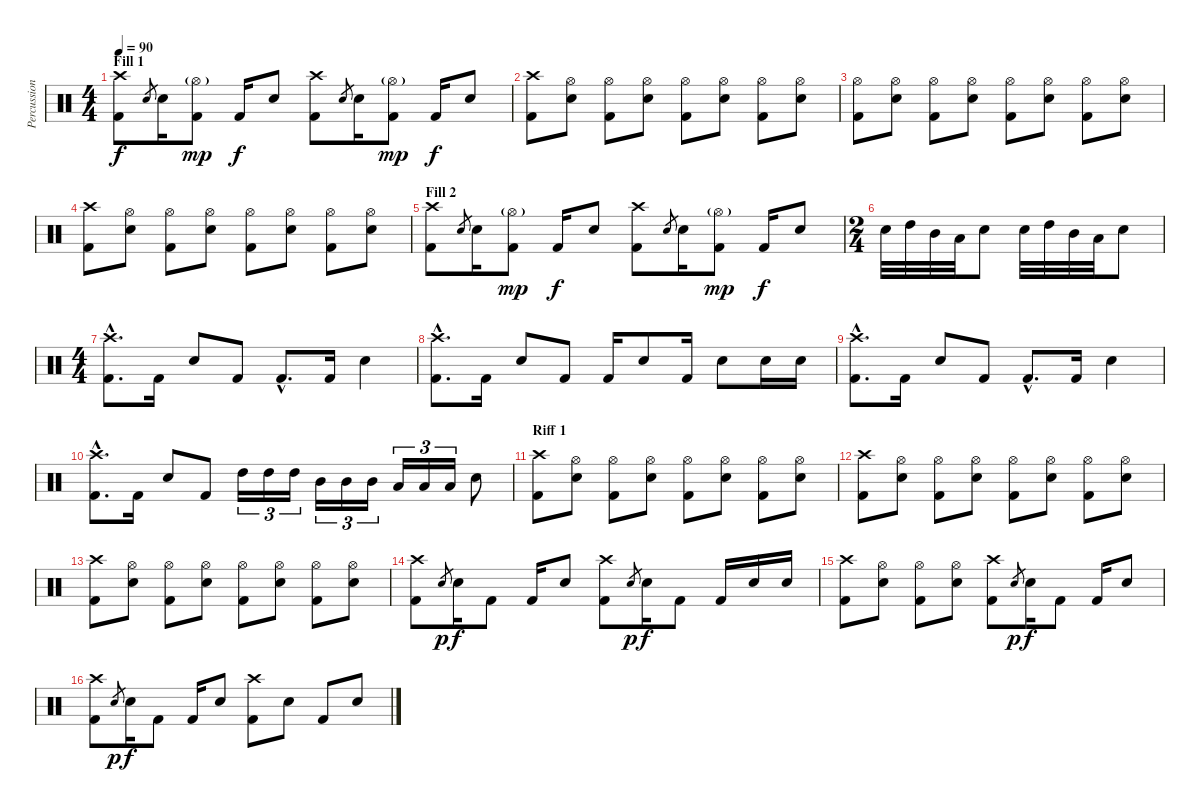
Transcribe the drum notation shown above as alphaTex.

\track ("Percussion" "Percussion") {instrument percussion}
\staff {score}
\articulation defaults
\ts (4 4)
\section ("" "Fill 1")
\tempo 90
\clef neutral
\ks c
("Crash high (hit)" "Kick (hit) 2").8{dy f} "Electric Snare (hit)"{h}.8{gr} "Electric Snare (hit)".16 ("Hi-Hat (open)"{g} "Kick (hit) 2").8{dy mp} "Kick (hit) 2".16{dy f} "Electric Snare (hit)".8 ("Crash high (hit)" "Kick (hit) 2").8 "Electric Snare (hit)"{h}.8{gr} "Electric Snare (hit)".16 ("Hi-Hat (open)"{g} "Kick (hit) 2").8{dy mp} "Kick (hit) 2".16{dy f} "Electric Snare (hit)".8 |
("Crash high (hit)" "Kick (hit) 2").8 ("Hi-Hat (open)" "Electric Snare (hit)").8 ("Hi-Hat (open)" "Kick (hit) 2").8 ("Hi-Hat (open)" "Electric Snare (hit)").8 ("Hi-Hat (open)" "Kick (hit) 2").8 ("Hi-Hat (open)" "Electric Snare (hit)").8 ("Hi-Hat (open)" "Kick (hit) 2").8 ("Hi-Hat (open)" "Electric Snare (hit)").8 |
("Hi-Hat (open)" "Kick (hit) 2").8 ("Hi-Hat (open)" "Electric Snare (hit)").8 ("Hi-Hat (open)" "Kick (hit) 2").8 ("Hi-Hat (open)" "Electric Snare (hit)").8 ("Hi-Hat (open)" "Kick (hit) 2").8 ("Hi-Hat (open)" "Electric Snare (hit)").8 ("Hi-Hat (open)" "Kick (hit) 2").8 ("Hi-Hat (open)" "Electric Snare (hit)").8 |
("Crash high (hit)" "Kick (hit) 2").8 ("Hi-Hat (open)" "Electric Snare (hit)").8 ("Hi-Hat (open)" "Kick (hit) 2").8 ("Hi-Hat (open)" "Electric Snare (hit)").8 ("Hi-Hat (open)" "Kick (hit) 2").8 ("Hi-Hat (open)" "Electric Snare (hit)").8 ("Hi-Hat (open)" "Kick (hit) 2").8 ("Hi-Hat (open)" "Electric Snare (hit)").8 |
\section ("" "Fill 2")
("Crash high (hit)" "Kick (hit) 2").8 "Electric Snare (hit)"{h}.8{gr} "Electric Snare (hit)".16 ("Hi-Hat (open)"{g} "Kick (hit) 2").8{dy mp} "Kick (hit) 2".16{dy f} "Electric Snare (hit)".8 ("Crash high (hit)" "Kick (hit) 2").8 "Electric Snare (hit)"{h}.8{gr} "Electric Snare (hit)".16 ("Hi-Hat (open)"{g} "Kick (hit) 2").8{dy mp} "Kick (hit) 2".16{dy f} "Electric Snare (hit)".8 |
\ts (2 4)
"Electric Snare (hit)".32 "High Tom (hit)".32 "Mid Tom (hit)".32 "Low Tom (hit)".32 "Electric Snare (hit)".8 "Electric Snare (hit)".32 "High Tom (hit)".32 "Mid Tom (hit)".32 "Low Tom (hit)".32 "Electric Snare (hit)".8 |
\ts (4 4)
("Crash high (hit)"{hac} "Kick (hit) 2"{hac}).8{d} "Kick (hit) 2".16 "Electric Snare (hit)".8 "Kick (hit) 2".8 "Kick (hit) 2"{hac}.8{d} "Kick (hit) 2".16 "Electric Snare (hit)".4 |
("Crash high (hit)"{hac} "Kick (hit) 2"{hac}).8{d} "Kick (hit) 2".16 "Electric Snare (hit)".8 "Kick (hit) 2".8 "Kick (hit) 2".16 "Electric Snare (hit)".8 "Kick (hit) 2".16 "Electric Snare (hit)".8 "Electric Snare (hit)".16 "Electric Snare (hit)".16 |
("Crash high (hit)"{hac} "Kick (hit) 2"{hac}).8{d} "Kick (hit) 2".16 "Electric Snare (hit)".8 "Kick (hit) 2".8 "Kick (hit) 2"{hac}.8{d} "Kick (hit) 2".16 "Electric Snare (hit)".4 |
("Crash high (hit)"{hac} "Kick (hit) 2"{hac}).8{d} "Kick (hit) 2".16 "Electric Snare (hit)".8 "Kick (hit) 2".8 "High Tom (hit)".16{tu (3 2)} "High Tom (hit)".16{tu (3 2)} "High Tom (hit)".16{tu (3 2)} "Mid Tom (hit)".16{tu (3 2)} "Mid Tom (hit)".16{tu (3 2)} "Mid Tom (hit)".16{tu (3 2)} "Low Tom (hit)".16{tu (3 2)} "Low Tom (hit)".16{tu (3 2)} "Low Tom (hit)".16{tu (3 2)} "Electric Snare (hit)".8 |
\section ("" "Riff 1")
("Crash high (hit)" "Kick (hit) 2").8 ("Hi-Hat (open)" "Electric Snare (hit)").8 ("Hi-Hat (open)" "Kick (hit) 2").8 ("Hi-Hat (open)" "Electric Snare (hit)").8 ("Hi-Hat (open)" "Kick (hit) 2").8 ("Hi-Hat (open)" "Electric Snare (hit)").8 ("Hi-Hat (open)" "Kick (hit) 2").8 ("Hi-Hat (open)" "Electric Snare (hit)").8 |
("Crash high (hit)" "Kick (hit) 2").8 ("Hi-Hat (open)" "Electric Snare (hit)").8 ("Hi-Hat (open)" "Kick (hit) 2").8 ("Hi-Hat (open)" "Electric Snare (hit)").8 ("Hi-Hat (open)" "Kick (hit) 2").8 ("Hi-Hat (open)" "Electric Snare (hit)").8 ("Hi-Hat (open)" "Kick (hit) 2").8 ("Hi-Hat (open)" "Electric Snare (hit)").8 |
("Crash high (hit)" "Kick (hit) 2").8 ("Hi-Hat (open)" "Electric Snare (hit)").8 ("Hi-Hat (open)" "Kick (hit) 2").8 ("Hi-Hat (open)" "Electric Snare (hit)").8 ("Hi-Hat (open)" "Kick (hit) 2").8 ("Hi-Hat (open)" "Electric Snare (hit)").8 ("Hi-Hat (open)" "Kick (hit) 2").8 ("Hi-Hat (open)" "Electric Snare (hit)").8 |
("Crash high (hit)" "Kick (hit) 2").8 "Electric Snare (hit)"{h}.8{gr dy p} "Electric Snare (hit)".16{dy f} "Kick (hit) 2".8 "Kick (hit) 2".16 "Electric Snare (hit)".8 ("Crash high (hit)" "Kick (hit) 2").8 "Electric Snare (hit)"{h}.8{gr dy p} "Electric Snare (hit)".16{dy f} "Kick (hit) 2".8 "Kick (hit) 2".16 "Electric Snare (hit)".16 "Electric Snare (hit)".16 |
("Crash high (hit)" "Kick (hit) 2").8 ("Hi-Hat (open)" "Electric Snare (hit)").8 ("Hi-Hat (open)" "Kick (hit) 2").8 ("Hi-Hat (open)" "Electric Snare (hit)").8 ("Crash high (hit)" "Kick (hit) 2").8 "Electric Snare (hit)"{h}.8{gr dy p} "Electric Snare (hit)".16{dy f} "Kick (hit) 2".8 "Kick (hit) 2".16 "Electric Snare (hit)".8 |
("Crash high (hit)" "Kick (hit) 2").8 "Electric Snare (hit)"{h}.8{gr dy p} "Electric Snare (hit)".16{dy f} "Kick (hit) 2".8 "Kick (hit) 2".16 "Electric Snare (hit)".8 ("Crash high (hit)" "Kick (hit) 2").8 "Electric Snare (hit)".8 "Kick (hit) 2".8 "Electric Snare (hit)".8
